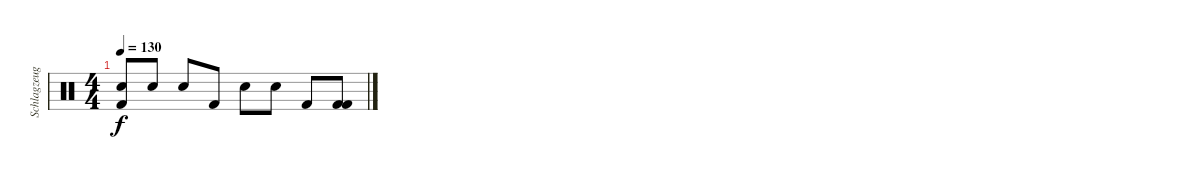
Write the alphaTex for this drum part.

\track ("Schlagzeug" "Schlagzeug") {instrument percussion}
\staff {score}
\articulation defaults
\ts (4 4)
\tempo 130
\clef neutral
\ks c
("Snare (hit) 2" "Kick (hit) 2").8{dy f} "Snare (hit) 2".8 "Snare (hit) 2".8 "Kick (hit) 2".8 "Snare (hit) 2".8 "Snare (hit) 2".8 "Kick (hit) 2".8 ("Kick (hit) 2" "Kick (hit) 2").8
